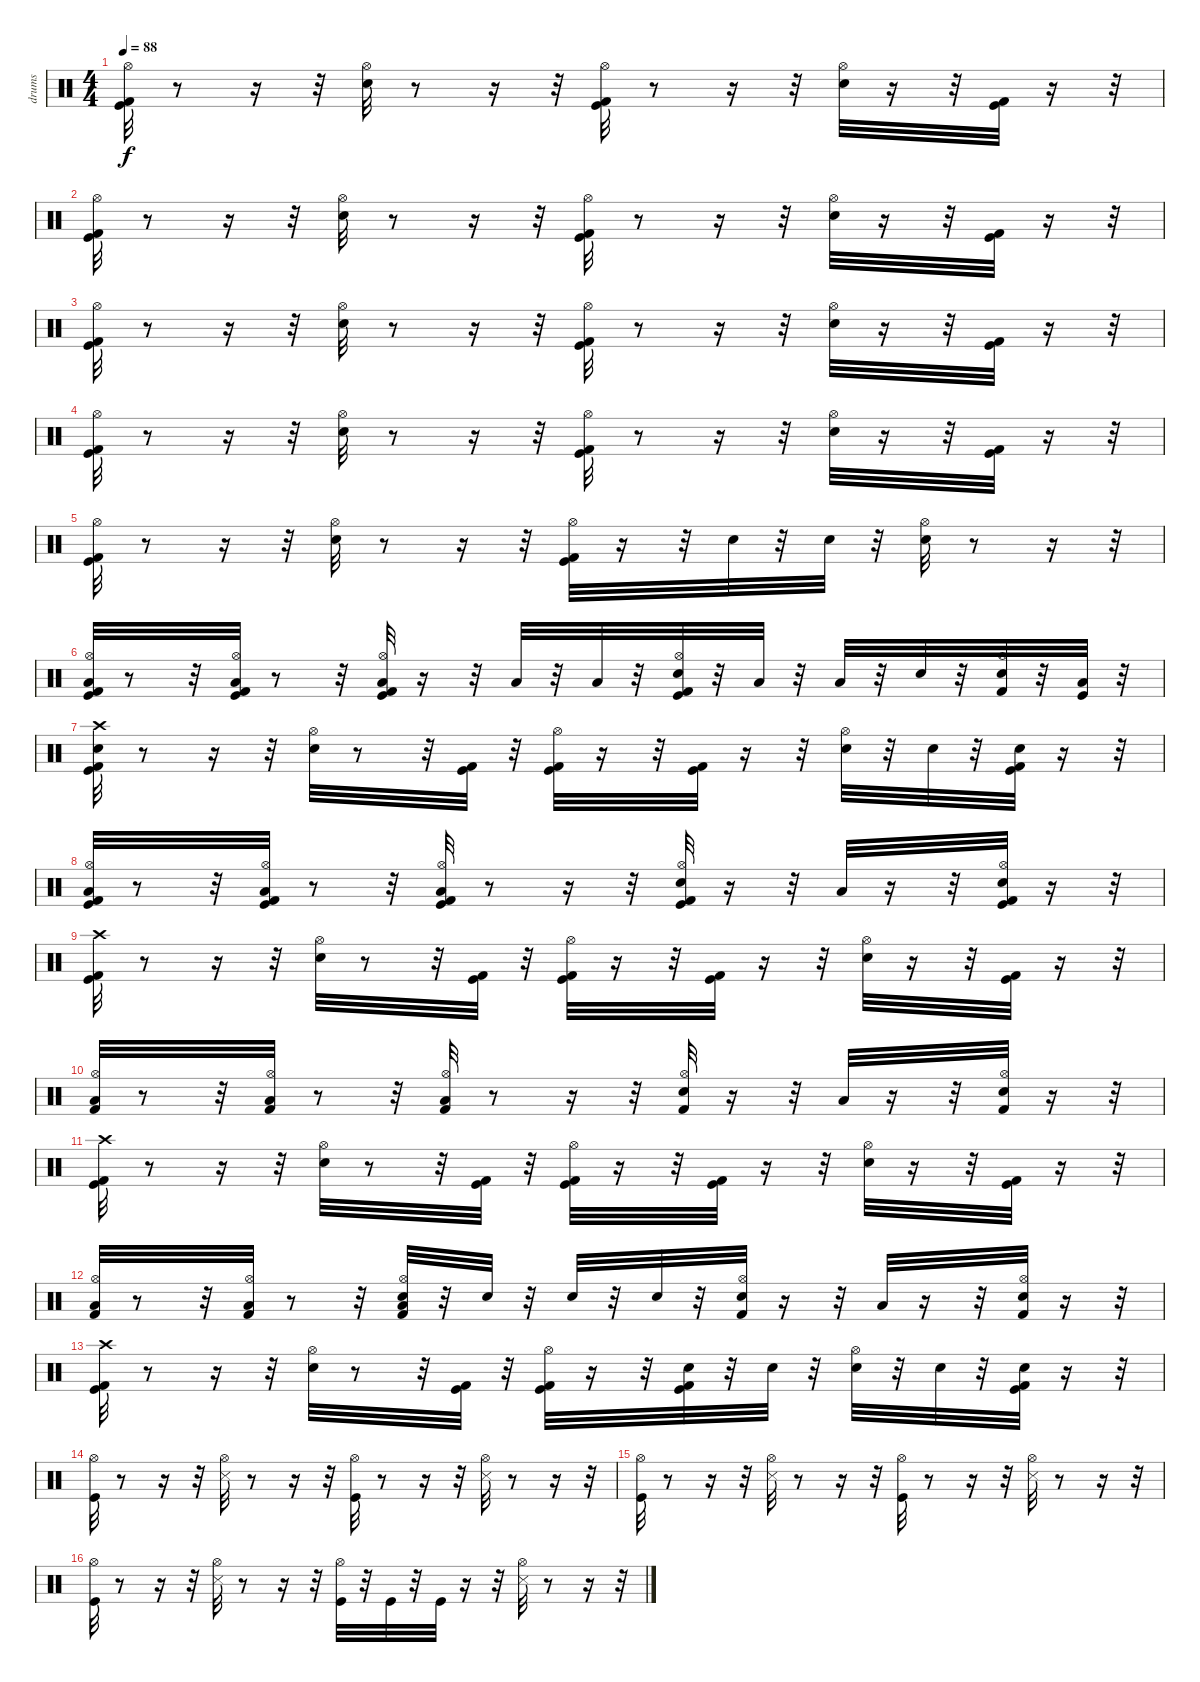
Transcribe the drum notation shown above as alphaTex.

\track ("drums" "drums") {instrument percussion}
\staff {score}
\articulation defaults
\ts (4 4)
\tempo 88
\clef neutral
\ks c
("Kick (hit) 2" "Kick (hit)" "Hi-Hat (open)").32{dy f} r.8 r.16 r.32 ("Snare (hit) 2" "Hi-Hat (open)").32 r.8 r.16 r.32 ("Kick (hit)" "Kick (hit) 2" "Hi-Hat (open)").32 r.8 r.16 r.32 ("Snare (hit) 2" "Hi-Hat (open)").32 r.16 r.32 ("Kick (hit)" "Kick (hit) 2").32 r.16 r.32 |
("Kick (hit) 2" "Kick (hit)" "Hi-Hat (open)").32 r.8 r.16 r.32 ("Snare (hit) 2" "Hi-Hat (open)").32 r.8 r.16 r.32 ("Kick (hit)" "Kick (hit) 2" "Hi-Hat (open)").32 r.8 r.16 r.32 ("Snare (hit) 2" "Hi-Hat (open)").32 r.16 r.32 ("Kick (hit)" "Kick (hit) 2").32 r.16 r.32 |
("Kick (hit) 2" "Kick (hit)" "Hi-Hat (open)").32 r.8 r.16 r.32 ("Snare (hit) 2" "Hi-Hat (open)").32 r.8 r.16 r.32 ("Kick (hit)" "Kick (hit) 2" "Hi-Hat (open)").32 r.8 r.16 r.32 ("Snare (hit) 2" "Hi-Hat (open)").32 r.16 r.32 ("Kick (hit)" "Kick (hit) 2").32 r.16 r.32 |
("Kick (hit) 2" "Kick (hit)" "Hi-Hat (open)").32 r.8 r.16 r.32 ("Snare (hit) 2" "Hi-Hat (open)").32 r.8 r.16 r.32 ("Kick (hit)" "Kick (hit) 2" "Hi-Hat (open)").32 r.8 r.16 r.32 ("Snare (hit) 2" "Hi-Hat (open)").32 r.16 r.32 ("Kick (hit)" "Kick (hit) 2").32 r.16 r.32 |
("Kick (hit) 2" "Kick (hit)" "Hi-Hat (open)").32 r.8 r.16 r.32 ("Snare (hit) 2" "Hi-Hat (open)").32 r.8 r.16 r.32 ("Kick (hit)" "Kick (hit) 2" "Hi-Hat (open)").32 r.16 r.32 "Snare (hit) 2".32 r.32 "Snare (hit) 2".32 r.32 ("Snare (hit) 2" "Hi-Hat (open)").32 r.8 r.16 r.32 |
("Kick (hit)" "Kick (hit) 2" "Low Floor Tom (hit)" "Hi-Hat (open)").32 r.8 r.32 ("Kick (hit)" "Kick (hit) 2" "Low Floor Tom (hit)" "Hi-Hat (open)").32 r.8 r.32 ("Kick (hit)" "Kick (hit) 2" "Low Floor Tom (hit)" "Hi-Hat (open)").32 r.16 r.32 "Low Tom (hit)".32 r.32 "Low Floor Tom (hit)".32 r.32 ("Kick (hit)" "Snare (hit) 2" "Kick (hit) 2" "Hi-Hat (open)").32 r.32 "Low Tom (hit)".32 r.32 "Low Floor Tom (hit)".32 r.32 "Snare (hit) 2".32 r.32 ("Kick (hit) 2" "Hi-Hat (open)" "Snare (hit) 2").32 r.32 ("Kick (hit)" "Low Floor Tom (hit)").32 r.32 |
("Snare (hit) 2" "Crash high (hit)" "Kick (hit)" "Kick (hit) 2").32 r.8 r.16 r.32 ("Hi-Hat (open)" "Snare (hit) 2").32 r.8 r.32 ("Kick (hit) 2" "Kick (hit)").32 r.32 ("Hi-Hat (open)" "Kick (hit) 2" "Kick (hit)").32 r.16 r.32 ("Kick (hit) 2" "Kick (hit)").32 r.16 r.32 ("Hi-Hat (open)" "Snare (hit) 2").32 r.32 "Snare (hit) 2".32 r.32 ("Snare (hit) 2" "Kick (hit) 2" "Kick (hit)").32 r.16 r.32 |
("Kick (hit) 2" "Low Floor Tom (hit)" "Hi-Hat (open)" "Kick (hit)").32 r.8 r.32 ("Kick (hit)" "Kick (hit) 2" "Low Floor Tom (hit)" "Hi-Hat (open)").32 r.8 r.32 ("Kick (hit)" "Kick (hit) 2" "Low Floor Tom (hit)" "Hi-Hat (open)").32 r.8 r.16 r.32 ("Kick (hit)" "Snare (hit) 2" "Kick (hit) 2" "Hi-Hat (open)").32 r.16 r.32 "Low Floor Tom (hit)".32 r.16 r.32 ("Kick (hit)" "Kick (hit) 2" "Hi-Hat (open)" "Snare (hit) 2").32 r.16 r.32 |
("Crash high (hit)" "Kick (hit)" "Kick (hit) 2").32 r.8 r.16 r.32 ("Hi-Hat (open)" "Snare (hit) 2").32 r.8 r.32 ("Kick (hit) 2" "Kick (hit)").32 r.32 ("Hi-Hat (open)" "Kick (hit) 2" "Kick (hit)").32 r.16 r.32 ("Kick (hit) 2" "Kick (hit)").32 r.16 r.32 ("Hi-Hat (open)" "Snare (hit) 2").32 r.16 r.32 ("Kick (hit) 2" "Kick (hit)").32 r.16 r.32 |
("Kick (hit) 2" "Low Floor Tom (hit)" "Hi-Hat (open)").32 r.8 r.32 ("Kick (hit) 2" "Low Floor Tom (hit)" "Hi-Hat (open)").32 r.8 r.32 ("Kick (hit) 2" "Low Floor Tom (hit)" "Hi-Hat (open)").32 r.8 r.16 r.32 ("Snare (hit) 2" "Kick (hit) 2" "Hi-Hat (open)").32 r.16 r.32 "Low Floor Tom (hit)".32 r.16 r.32 ("Kick (hit) 2" "Hi-Hat (open)" "Snare (hit) 2").32 r.16 r.32 |
("Crash high (hit)" "Kick (hit)" "Kick (hit) 2").32 r.8 r.16 r.32 ("Hi-Hat (open)" "Snare (hit) 2").32 r.8 r.32 ("Kick (hit) 2" "Kick (hit)").32 r.32 ("Hi-Hat (open)" "Kick (hit) 2" "Kick (hit)").32 r.16 r.32 ("Kick (hit) 2" "Kick (hit)").32 r.16 r.32 ("Hi-Hat (open)" "Snare (hit) 2").32 r.16 r.32 ("Kick (hit) 2" "Kick (hit)").32 r.16 r.32 |
("Kick (hit) 2" "Low Floor Tom (hit)" "Hi-Hat (open)").32 r.8 r.32 ("Kick (hit) 2" "Low Floor Tom (hit)" "Hi-Hat (open)").32 r.8 r.32 ("Snare (hit) 2" "Kick (hit) 2" "Low Floor Tom (hit)" "Hi-Hat (open)").32 r.32 "Snare (hit) 2".32 r.32 "Snare (hit) 2".32 r.32 "Snare (hit) 2".32 r.32 ("Snare (hit) 2" "Kick (hit) 2" "Hi-Hat (open)").32 r.16 r.32 "Low Floor Tom (hit)".32 r.16 r.32 ("Kick (hit) 2" "Hi-Hat (open)" "Snare (hit) 2").32 r.16 r.32 |
("Crash high (hit)" "Kick (hit)" "Kick (hit) 2").32 r.8 r.16 r.32 ("Hi-Hat (open)" "Snare (hit) 2").32 r.8 r.32 ("Kick (hit) 2" "Kick (hit)").32 r.32 ("Hi-Hat (open)" "Kick (hit) 2" "Kick (hit)").32 r.16 r.32 ("Snare (hit) 2" "Kick (hit) 2" "Kick (hit)").32 r.32 "Snare (hit) 2".32 r.32 ("Hi-Hat (open)" "Snare (hit) 2").32 r.32 "Snare (hit) 2".32 r.32 ("Snare (hit) 2" "Kick (hit) 2" "Kick (hit)").32 r.16 r.32 |
("Kick (hit)" "Hi-Hat (open)").32 r.8 r.16 r.32 ("Snare (side stick) 3" "Hi-Hat (open)").32 r.8 r.16 r.32 ("Kick (hit)" "Hi-Hat (open)").32 r.8 r.16 r.32 ("Snare (side stick) 3" "Hi-Hat (open)").32 r.8 r.16 r.32 |
("Kick (hit)" "Hi-Hat (open)").32 r.8 r.16 r.32 ("Snare (side stick) 3" "Hi-Hat (open)").32 r.8 r.16 r.32 ("Kick (hit)" "Hi-Hat (open)").32 r.8 r.16 r.32 ("Snare (side stick) 3" "Hi-Hat (open)").32 r.8 r.16 r.32 |
("Kick (hit)" "Hi-Hat (open)").32 r.8 r.16 r.32 ("Snare (side stick) 3" "Hi-Hat (open)").32 r.8 r.16 r.32 ("Kick (hit)" "Hi-Hat (open)").32 r.32 "Kick (hit)".32 r.32 "Kick (hit)".32 r.16 r.32 ("Snare (side stick) 3" "Hi-Hat (open)").32 r.8 r.16 r.32
